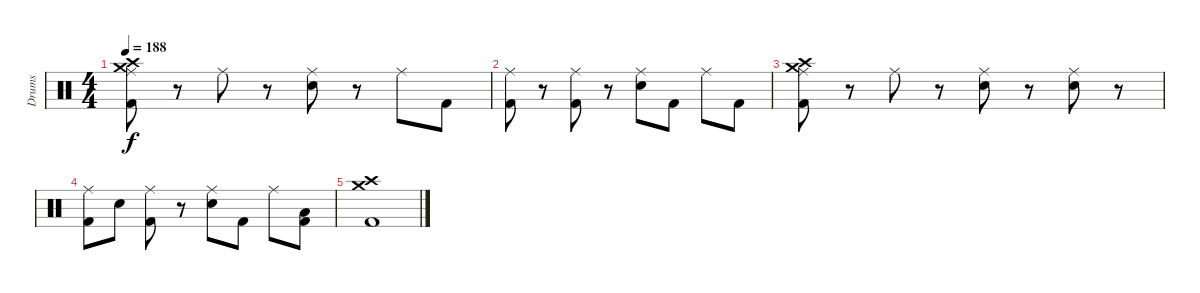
\track ("Drums" "Drums") {instrument percussion}
\staff {score}
\articulation defaults
\ts (4 4)
\tempo 188
\clef neutral
\ks c
("Crash medium (hit)" "Crash high (hit)" "Ride (middle)" "Kick (hit) 2").8{dy f} r.8 "Ride (middle)".8 r.8 ("Ride (middle)" "Snare (hit) 2").8 r.8 "Ride (middle)".8 "Kick (hit) 2".8 |
("Ride (middle)" "Kick (hit) 2").8 r.8 ("Ride (middle)" "Kick (hit) 2").8 r.8 ("Ride (middle)" "Snare (hit) 2").8 "Kick (hit) 2".8 "Ride (middle)".8 "Kick (hit) 2".8 |
("Crash medium (hit)" "Crash high (hit)" "Ride (middle)" "Kick (hit) 2").8 r.8 "Ride (middle)".8 r.8 ("Ride (middle)" "Snare (hit) 2").8 r.8 ("Ride (middle)" "Snare (hit) 2").8 r.8 |
("Ride (middle)" "Kick (hit) 2").8 "Snare (hit) 2".8 ("Ride (middle)" "Kick (hit) 2").8 r.8 ("Ride (middle)" "Snare (hit) 2").8 "Kick (hit) 2".8 "Ride (middle)".8 ("Low Tom (hit)" "Kick (hit) 2").8 |
("Crash medium (hit)" "Crash high (hit)" "Kick (hit) 2").1
